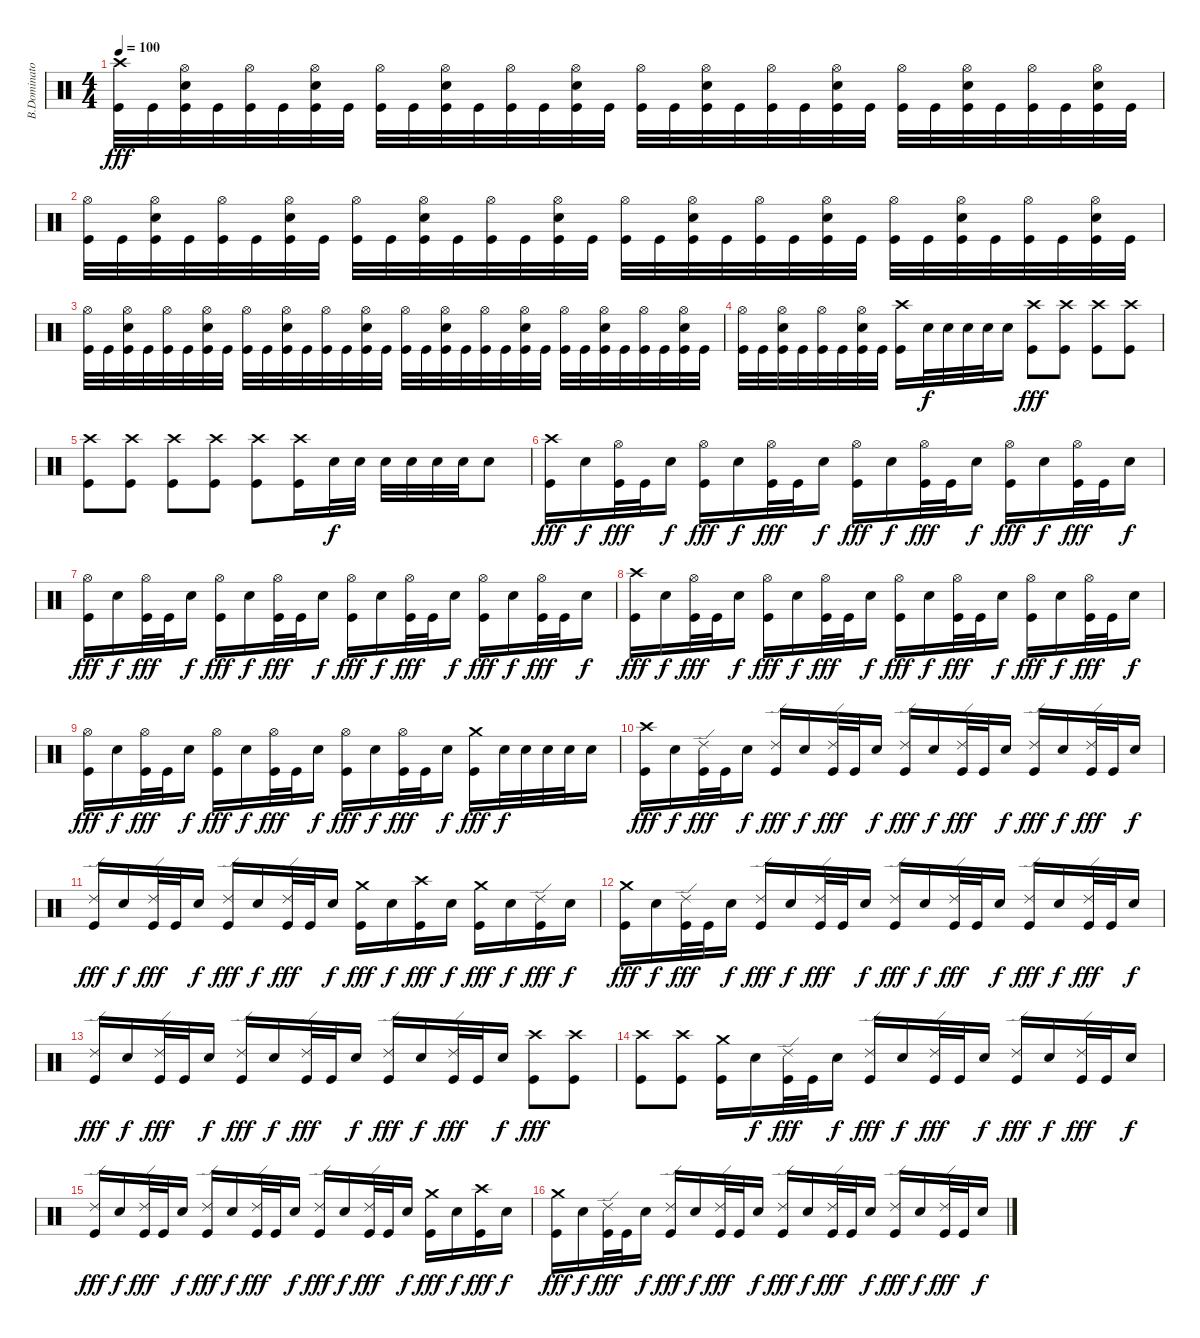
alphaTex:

\track ("B.Dominator" "B.Dominato") {instrument percussion}
\staff {score}
\articulation defaults
\ts (4 4)
\tempo 100
\clef neutral
\ks c
("Crash high (hit)" "Kick (hit)").32{dy fff} "Kick (hit)".32 ("Hi-Hat (open)" "Snare (hit) 2" "Kick (hit)").32 "Kick (hit)".32 ("Hi-Hat (open)" "Kick (hit)").32 "Kick (hit)".32 ("Hi-Hat (open)" "Snare (hit) 2" "Kick (hit)").32 "Kick (hit)".32 ("Hi-Hat (open)" "Kick (hit)").32 "Kick (hit)".32 ("Hi-Hat (open)" "Snare (hit) 2" "Kick (hit)").32 "Kick (hit)".32 ("Hi-Hat (open)" "Kick (hit)").32 "Kick (hit)".32 ("Hi-Hat (open)" "Snare (hit) 2" "Kick (hit)").32 "Kick (hit)".32 ("Hi-Hat (open)" "Kick (hit)").32 "Kick (hit)".32 ("Hi-Hat (open)" "Snare (hit) 2" "Kick (hit)").32 "Kick (hit)".32 ("Hi-Hat (open)" "Kick (hit)").32 "Kick (hit)".32 ("Hi-Hat (open)" "Snare (hit) 2" "Kick (hit)").32 "Kick (hit)".32 ("Hi-Hat (open)" "Kick (hit)").32 "Kick (hit)".32 ("Hi-Hat (open)" "Snare (hit) 2" "Kick (hit)").32 "Kick (hit)".32 ("Hi-Hat (open)" "Kick (hit)").32 "Kick (hit)".32 ("Hi-Hat (open)" "Snare (hit) 2" "Kick (hit)").32 "Kick (hit)".32 |
("Hi-Hat (open)" "Kick (hit)").32 "Kick (hit)".32 ("Hi-Hat (open)" "Snare (hit) 2" "Kick (hit)").32 "Kick (hit)".32 ("Hi-Hat (open)" "Kick (hit)").32 "Kick (hit)".32 ("Hi-Hat (open)" "Snare (hit) 2" "Kick (hit)").32 "Kick (hit)".32 ("Hi-Hat (open)" "Kick (hit)").32 "Kick (hit)".32 ("Hi-Hat (open)" "Snare (hit) 2" "Kick (hit)").32 "Kick (hit)".32 ("Hi-Hat (open)" "Kick (hit)").32 "Kick (hit)".32 ("Hi-Hat (open)" "Snare (hit) 2" "Kick (hit)").32 "Kick (hit)".32 ("Hi-Hat (open)" "Kick (hit)").32 "Kick (hit)".32 ("Hi-Hat (open)" "Snare (hit) 2" "Kick (hit)").32 "Kick (hit)".32 ("Hi-Hat (open)" "Kick (hit)").32 "Kick (hit)".32 ("Hi-Hat (open)" "Snare (hit) 2" "Kick (hit)").32 "Kick (hit)".32 ("Hi-Hat (open)" "Kick (hit)").32 "Kick (hit)".32 ("Hi-Hat (open)" "Snare (hit) 2" "Kick (hit)").32 "Kick (hit)".32 ("Hi-Hat (open)" "Kick (hit)").32 "Kick (hit)".32 ("Hi-Hat (open)" "Snare (hit) 2" "Kick (hit)").32 "Kick (hit)".32 |
("Hi-Hat (open)" "Kick (hit)").32 "Kick (hit)".32 ("Hi-Hat (open)" "Snare (hit) 2" "Kick (hit)").32 "Kick (hit)".32 ("Hi-Hat (open)" "Kick (hit)").32 "Kick (hit)".32 ("Hi-Hat (open)" "Snare (hit) 2" "Kick (hit)").32 "Kick (hit)".32 ("Hi-Hat (open)" "Kick (hit)").32 "Kick (hit)".32 ("Hi-Hat (open)" "Snare (hit) 2" "Kick (hit)").32 "Kick (hit)".32 ("Hi-Hat (open)" "Kick (hit)").32 "Kick (hit)".32 ("Hi-Hat (open)" "Snare (hit) 2" "Kick (hit)").32 "Kick (hit)".32 ("Hi-Hat (open)" "Kick (hit)").32 "Kick (hit)".32 ("Hi-Hat (open)" "Snare (hit) 2" "Kick (hit)").32 "Kick (hit)".32 ("Hi-Hat (open)" "Kick (hit)").32 "Kick (hit)".32 ("Hi-Hat (open)" "Snare (hit) 2" "Kick (hit)").32 "Kick (hit)".32 ("Hi-Hat (open)" "Kick (hit)").32 "Kick (hit)".32 ("Hi-Hat (open)" "Snare (hit) 2" "Kick (hit)").32 "Kick (hit)".32 ("Hi-Hat (open)" "Kick (hit)").32 "Kick (hit)".32 ("Hi-Hat (open)" "Snare (hit) 2" "Kick (hit)").32 "Kick (hit)".32 |
("Hi-Hat (open)" "Kick (hit)").32 "Kick (hit)".32 ("Hi-Hat (open)" "Snare (hit) 2" "Kick (hit)").32 "Kick (hit)".32 ("Hi-Hat (open)" "Kick (hit)").32 "Kick (hit)".32 ("Hi-Hat (open)" "Snare (hit) 2" "Kick (hit)").32 "Kick (hit)".32 ("Crash high (hit)" "Kick (hit)").16 "Snare (hit) 2".32{dy f} "Snare (hit) 2".32 "Snare (hit) 2".32 "Snare (hit) 2".32 "Snare (hit) 2".16 ("Crash high (hit)" "Kick (hit)").8{dy fff} ("Crash high (hit)" "Kick (hit)").8 ("Crash high (hit)" "Kick (hit)").8 ("Crash high (hit)" "Kick (hit)").8 |
("Crash high (hit)" "Kick (hit)").8 ("Crash high (hit)" "Kick (hit)").8 ("Crash high (hit)" "Kick (hit)").8 ("Crash high (hit)" "Kick (hit)").8 ("Crash high (hit)" "Kick (hit)").8 ("Crash high (hit)" "Kick (hit)").16 "Snare (hit) 2".32{dy f} "Snare (hit) 2".32 "Snare (hit) 2".32 "Snare (hit) 2".32 "Snare (hit) 2".32 "Snare (hit) 2".32 "Snare (hit) 2".8 |
("Crash high (hit)" "Kick (hit)").16{dy fff} "Snare (hit) 2".16{dy f} ("Hi-Hat (open)" "Kick (hit)").32{dy fff} "Kick (hit)".32 "Snare (hit) 2".16{dy f} ("Hi-Hat (open)" "Kick (hit)").16{dy fff} "Snare (hit) 2".16{dy f} ("Hi-Hat (open)" "Kick (hit)").32{dy fff} "Kick (hit)".32 "Snare (hit) 2".16{dy f} ("Hi-Hat (open)" "Kick (hit)").16{dy fff} "Snare (hit) 2".16{dy f} ("Hi-Hat (open)" "Kick (hit)").32{dy fff} "Kick (hit)".32 "Snare (hit) 2".16{dy f} ("Hi-Hat (open)" "Kick (hit)").16{dy fff} "Snare (hit) 2".16{dy f} ("Hi-Hat (open)" "Kick (hit)").32{dy fff} "Kick (hit)".32 "Snare (hit) 2".16{dy f} |
("Hi-Hat (open)" "Kick (hit)").16{dy fff} "Snare (hit) 2".16{dy f} ("Hi-Hat (open)" "Kick (hit)").32{dy fff} "Kick (hit)".32 "Snare (hit) 2".16{dy f} ("Hi-Hat (open)" "Kick (hit)").16{dy fff} "Snare (hit) 2".16{dy f} ("Hi-Hat (open)" "Kick (hit)").32{dy fff} "Kick (hit)".32 "Snare (hit) 2".16{dy f} ("Hi-Hat (open)" "Kick (hit)").16{dy fff} "Snare (hit) 2".16{dy f} ("Hi-Hat (open)" "Kick (hit)").32{dy fff} "Kick (hit)".32 "Snare (hit) 2".16{dy f} ("Hi-Hat (open)" "Kick (hit)").16{dy fff} "Snare (hit) 2".16{dy f} ("Hi-Hat (open)" "Kick (hit)").32{dy fff} "Kick (hit)".32 "Snare (hit) 2".16{dy f} |
("Crash high (hit)" "Kick (hit)").16{dy fff} "Snare (hit) 2".16{dy f} ("Hi-Hat (open)" "Kick (hit)").32{dy fff} "Kick (hit)".32 "Snare (hit) 2".16{dy f} ("Hi-Hat (open)" "Kick (hit)").16{dy fff} "Snare (hit) 2".16{dy f} ("Hi-Hat (open)" "Kick (hit)").32{dy fff} "Kick (hit)".32 "Snare (hit) 2".16{dy f} ("Hi-Hat (open)" "Kick (hit)").16{dy fff} "Snare (hit) 2".16{dy f} ("Hi-Hat (open)" "Kick (hit)").32{dy fff} "Kick (hit)".32 "Snare (hit) 2".16{dy f} ("Hi-Hat (open)" "Kick (hit)").16{dy fff} "Snare (hit) 2".16{dy f} ("Hi-Hat (open)" "Kick (hit)").32{dy fff} "Kick (hit)".32 "Snare (hit) 2".16{dy f} |
("Hi-Hat (open)" "Kick (hit)").16{dy fff} "Snare (hit) 2".16{dy f} ("Hi-Hat (open)" "Kick (hit)").32{dy fff} "Kick (hit)".32 "Snare (hit) 2".16{dy f} ("Hi-Hat (open)" "Kick (hit)").16{dy fff} "Snare (hit) 2".16{dy f} ("Hi-Hat (open)" "Kick (hit)").32{dy fff} "Kick (hit)".32 "Snare (hit) 2".16{dy f} ("Hi-Hat (open)" "Kick (hit)").16{dy fff} "Snare (hit) 2".16{dy f} ("Hi-Hat (open)" "Kick (hit)").32{dy fff} "Kick (hit)".32 "Snare (hit) 2".16{dy f} ("Crash medium (hit)" "Kick (hit)").16{dy fff} "Snare (hit) 2".32{dy f} "Snare (hit) 2".32 "Snare (hit) 2".32 "Snare (hit) 2".32 "Snare (hit) 2".16 |
("Crash high (hit)" "Kick (hit)").16{dy fff} "Snare (hit) 2".16{dy f} ("Ride (edge) 2" "Kick (hit)").32{dy fff} "Kick (hit)".32 "Snare (hit) 2".16{dy f} ("Ride (edge) 2" "Kick (hit)").16{dy fff} "Snare (hit) 2".16{dy f} ("Ride (edge) 2" "Kick (hit)").32{dy fff} "Kick (hit)".32 "Snare (hit) 2".16{dy f} ("Ride (edge) 2" "Kick (hit)").16{dy fff} "Snare (hit) 2".16{dy f} ("Ride (edge) 2" "Kick (hit)").32{dy fff} "Kick (hit)".32 "Snare (hit) 2".16{dy f} ("Ride (edge) 2" "Kick (hit)").16{dy fff} "Snare (hit) 2".16{dy f} ("Ride (edge) 2" "Kick (hit)").32{dy fff} "Kick (hit)".32 "Snare (hit) 2".16{dy f} |
("Ride (edge) 2" "Kick (hit)").16{dy fff} "Snare (hit) 2".16{dy f} ("Ride (edge) 2" "Kick (hit)").32{dy fff} "Kick (hit)".32 "Snare (hit) 2".16{dy f} ("Ride (edge) 2" "Kick (hit)").16{dy fff} "Snare (hit) 2".16{dy f} ("Ride (edge) 2" "Kick (hit)").32{dy fff} "Kick (hit)".32 "Snare (hit) 2".16{dy f} ("Crash medium (hit)" "Kick (hit)").16{dy fff} "Snare (hit) 2".16{dy f} ("Crash high (hit)" "Kick (hit)").16{dy fff} "Snare (hit) 2".16{dy f} ("Crash medium (hit)" "Kick (hit)").16{dy fff} "Snare (hit) 2".16{dy f} ("Ride (edge) 2" "Kick (hit)").16{dy fff} "Snare (hit) 2".16{dy f} |
("Crash medium (hit)" "Kick (hit)").16{dy fff} "Snare (hit) 2".16{dy f} ("Ride (edge) 2" "Kick (hit)").32{dy fff} "Kick (hit)".32 "Snare (hit) 2".16{dy f} ("Ride (edge) 2" "Kick (hit)").16{dy fff} "Snare (hit) 2".16{dy f} ("Ride (edge) 2" "Kick (hit)").32{dy fff} "Kick (hit)".32 "Snare (hit) 2".16{dy f} ("Ride (edge) 2" "Kick (hit)").16{dy fff} "Snare (hit) 2".16{dy f} ("Ride (edge) 2" "Kick (hit)").32{dy fff} "Kick (hit)".32 "Snare (hit) 2".16{dy f} ("Ride (edge) 2" "Kick (hit)").16{dy fff} "Snare (hit) 2".16{dy f} ("Ride (edge) 2" "Kick (hit)").32{dy fff} "Kick (hit)".32 "Snare (hit) 2".16{dy f} |
("Ride (edge) 2" "Kick (hit)").16{dy fff} "Snare (hit) 2".16{dy f} ("Ride (edge) 2" "Kick (hit)").32{dy fff} "Kick (hit)".32 "Snare (hit) 2".16{dy f} ("Ride (edge) 2" "Kick (hit)").16{dy fff} "Snare (hit) 2".16{dy f} ("Ride (edge) 2" "Kick (hit)").32{dy fff} "Kick (hit)".32 "Snare (hit) 2".16{dy f} ("Ride (edge) 2" "Kick (hit)").16{dy fff} "Snare (hit) 2".16{dy f} ("Ride (edge) 2" "Kick (hit)").32{dy fff} "Kick (hit)".32 "Snare (hit) 2".16{dy f} ("Crash high (hit)" "Kick (hit)").8{dy fff} ("Crash high (hit)" "Kick (hit)").8 |
("Crash high (hit)" "Kick (hit)").8 ("Crash high (hit)" "Kick (hit)").8 ("Crash medium (hit)" "Kick (hit)").16 "Snare (hit) 2".16{dy f} ("Ride (edge) 2" "Kick (hit)").32{dy fff} "Kick (hit)".32 "Snare (hit) 2".16{dy f} ("Ride (edge) 2" "Kick (hit)").16{dy fff} "Snare (hit) 2".16{dy f} ("Ride (edge) 2" "Kick (hit)").32{dy fff} "Kick (hit)".32 "Snare (hit) 2".16{dy f} ("Ride (edge) 2" "Kick (hit)").16{dy fff} "Snare (hit) 2".16{dy f} ("Ride (edge) 2" "Kick (hit)").32{dy fff} "Kick (hit)".32 "Snare (hit) 2".16{dy f} |
("Ride (edge) 2" "Kick (hit)").16{dy fff} "Snare (hit) 2".16{dy f} ("Ride (edge) 2" "Kick (hit)").32{dy fff} "Kick (hit)".32 "Snare (hit) 2".16{dy f} ("Ride (edge) 2" "Kick (hit)").16{dy fff} "Snare (hit) 2".16{dy f} ("Ride (edge) 2" "Kick (hit)").32{dy fff} "Kick (hit)".32 "Snare (hit) 2".16{dy f} ("Ride (edge) 2" "Kick (hit)").16{dy fff} "Snare (hit) 2".16{dy f} ("Ride (edge) 2" "Kick (hit)").32{dy fff} "Kick (hit)".32 "Snare (hit) 2".16{dy f} ("Crash medium (hit)" "Kick (hit)").16{dy fff} "Snare (hit) 2".16{dy f} ("Crash high (hit)" "Kick (hit)").16{dy fff} "Snare (hit) 2".16{dy f} |
("Crash medium (hit)" "Kick (hit)").16{dy fff} "Snare (hit) 2".16{dy f} ("Ride (edge) 2" "Kick (hit)").32{dy fff} "Kick (hit)".32 "Snare (hit) 2".16{dy f} ("Ride (edge) 2" "Kick (hit)").16{dy fff} "Snare (hit) 2".16{dy f} ("Ride (edge) 2" "Kick (hit)").32{dy fff} "Kick (hit)".32 "Snare (hit) 2".16{dy f} ("Ride (edge) 2" "Kick (hit)").16{dy fff} "Snare (hit) 2".16{dy f} ("Ride (edge) 2" "Kick (hit)").32{dy fff} "Kick (hit)".32 "Snare (hit) 2".16{dy f} ("Ride (edge) 2" "Kick (hit)").16{dy fff} "Snare (hit) 2".16{dy f} ("Ride (edge) 2" "Kick (hit)").32{dy fff} "Kick (hit)".32 "Snare (hit) 2".16{dy f}
